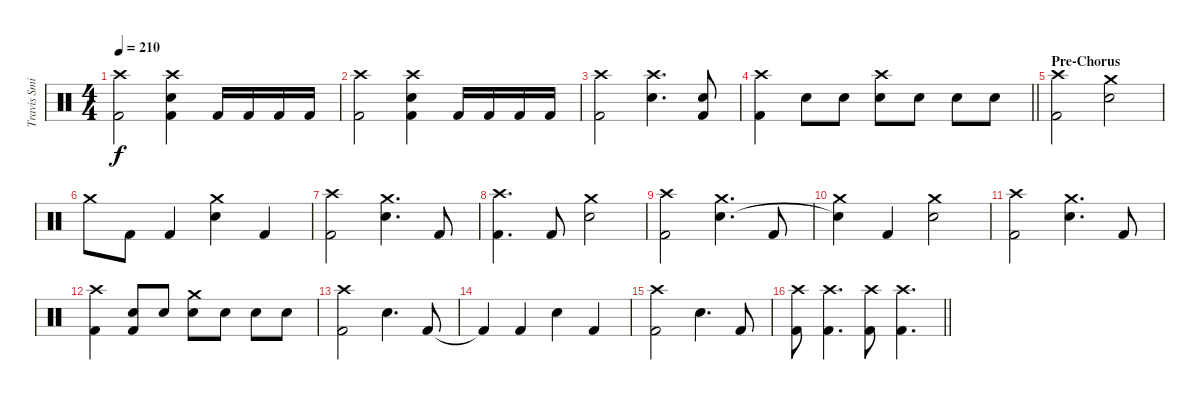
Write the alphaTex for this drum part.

\track ("Travis Smith" "Travis Smi") {instrument percussion}
\staff {score}
\articulation defaults
\ts (4 4)
\tempo 210
\clef neutral
\ks c
("Crash high (hit)" "Kick (hit) 2").2{dy f} ("Crash high (hit)" "Snare (hit) 2" "Kick (hit) 2").4 "Kick (hit) 2".16 "Kick (hit) 2".16 "Kick (hit) 2".16 "Kick (hit) 2".16 |
("Crash high (hit)" "Kick (hit) 2").2 ("Crash high (hit)" "Snare (hit) 2" "Kick (hit) 2").4 "Kick (hit) 2".16 "Kick (hit) 2".16 "Kick (hit) 2".16 "Kick (hit) 2".16 |
("Crash high (hit)" "Kick (hit) 2").2 ("Crash high (hit)" "Snare (hit) 2").4{d} ("Snare (hit) 2" "Kick (hit) 2").8 |
\barLineRight lightlight
("Crash high (hit)" "Kick (hit) 2").4 "Snare (hit) 2".8 "Snare (hit) 2".8 ("Crash high (hit)" "Snare (hit) 2").8 "Snare (hit) 2".8 "Snare (hit) 2".8 "Snare (hit) 2".8 |
\section ("" "Pre-Chorus")
("Crash high (hit)" "Kick (hit) 2").2 ("Crash medium (hit)" "Snare (hit) 2").2 |
"Crash medium (hit)".8 "Kick (hit) 2".8 "Kick (hit) 2".4 ("Crash medium (hit)" "Snare (hit) 2").4 "Kick (hit) 2".4 |
("Crash high (hit)" "Kick (hit) 2").2 ("Crash medium (hit)" "Snare (hit) 2").4{d} "Kick (hit) 2".8 |
("Crash high (hit)" "Kick (hit) 2").4{d} "Kick (hit) 2".8 ("Crash medium (hit)" "Snare (hit) 2").2 |
("Crash high (hit)" "Kick (hit) 2").2 ("Crash medium (hit)" "Snare (hit) 2").4{d} "Kick (hit) 2".8 |
("Crash medium (hit)" "Snare (hit)"{t}).4 "Kick (hit) 2".4 ("Crash medium (hit)" "Snare (hit) 2").2 |
("Crash high (hit)" "Kick (hit) 2").2 ("Crash medium (hit)" "Snare (hit) 2").4{d} "Kick (hit) 2".8 |
("Crash high (hit)" "Kick (hit) 2").4 ("Snare (hit) 2" "Kick (hit) 2").8 "Snare (hit) 2".8 ("Crash medium (hit)" "Snare (hit) 2").8 "Snare (hit) 2".8 "Snare (hit) 2".8 "Snare (hit) 2".8 |
("Crash high (hit)" "Kick (hit) 2").2 "Snare (hit) 2".4{d} "Kick (hit) 2".8 |
"Kick (hit) 2"{t}.4 "Kick (hit) 2".4 "Snare (hit) 2".4 "Kick (hit) 2".4 |
("Crash high (hit)" "Kick (hit) 2").2 "Snare (hit) 2".4{d} "Kick (hit) 2".8 |
\barLineRight lightlight
("Crash high (hit)" "Kick (hit) 2").8 ("Crash high (hit)" "Kick (hit) 2").4{d} ("Crash high (hit)" "Kick (hit) 2").8 ("Crash high (hit)" "Kick (hit) 2").4{d}
